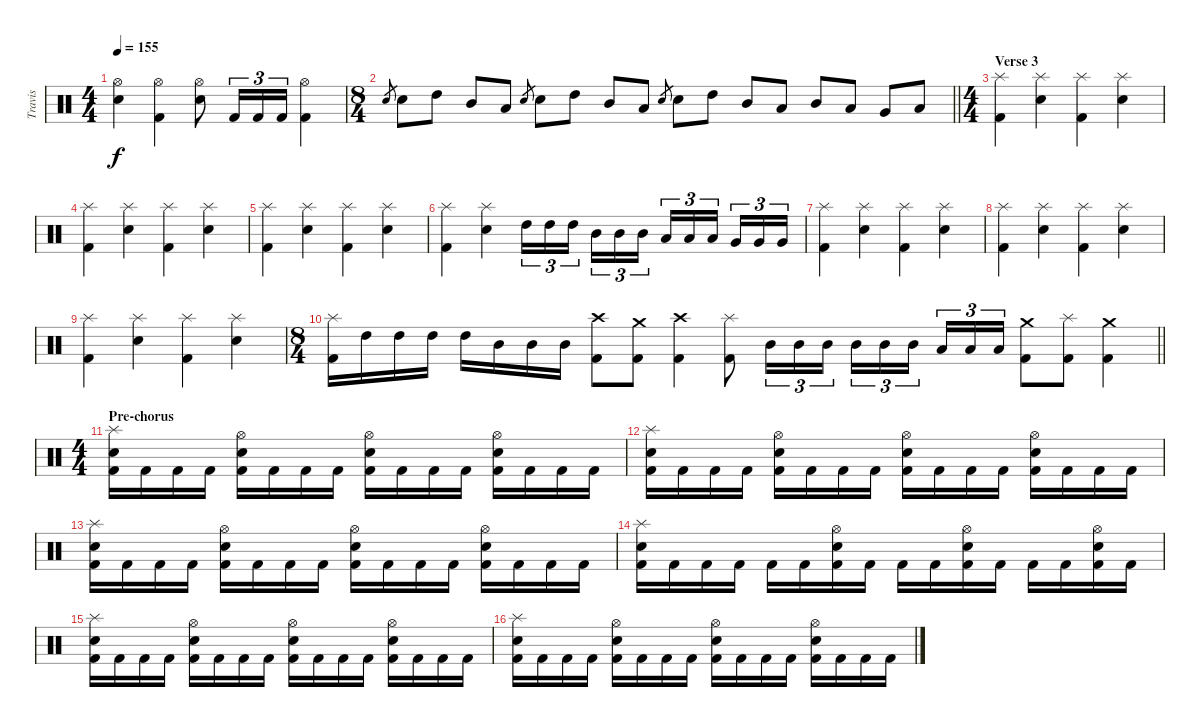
\track ("Travis" "Travis") {instrument percussion}
\staff {score}
\articulation defaults
\ts (4 4)
\tempo 155
\clef neutral
\ks c
("Hi-Hat (open)" "Snare (hit) 2").4{dy f} ("Hi-Hat (open)" "Kick (hit) 2").4 ("Hi-Hat (open)" "Snare (hit) 2").8 "Kick (hit) 2".16{tu (3 2)} "Kick (hit) 2".16{tu (3 2)} "Kick (hit) 2".16{tu (3 2)} ("Hi-Hat (open)" "Kick (hit) 2").4 |
\ts (8 4)
\barLineRight lightlight "Snare (hit) 2".8{gr} "Snare (hit) 2".8 "High Tom (hit)".8 "Mid Tom (hit)".8 "Low Tom (hit)".8 "Snare (hit) 2".8{gr} "Snare (hit) 2".8 "High Tom (hit)".8 "Mid Tom (hit)".8 "Low Tom (hit)".8 "Snare (hit) 2".8{gr} "Snare (hit) 2".8 "High Tom (hit)".8 "Mid Tom (hit)".8 "Low Tom (hit)".8 "Mid Tom (hit)".8 "Low Tom (hit)".8 "Very Low Tom (hit)".8 "Low Floor Tom (hit)".8
|
\ts (4 4)
\section ("" "Verse 3")
("Splash (hit)" "Kick (hit) 2").4 ("Splash (hit)" "Snare (hit) 2").4 ("Splash (hit)" "Kick (hit) 2").4 ("Splash (hit)" "Snare (hit) 2").4 |
("Splash (hit)" "Kick (hit) 2").4 ("Splash (hit)" "Snare (hit) 2").4 ("Splash (hit)" "Kick (hit) 2").4 ("Splash (hit)" "Snare (hit) 2").4 |
("Splash (hit)" "Kick (hit) 2").4 ("Splash (hit)" "Snare (hit) 2").4 ("Splash (hit)" "Kick (hit) 2").4 ("Splash (hit)" "Snare (hit) 2").4 |
("Splash (hit)" "Kick (hit) 2").4 ("Splash (hit)" "Snare (hit) 2").4 "High Tom (hit)".16{tu (3 2)} "High Tom (hit)".16{tu (3 2)} "High Tom (hit)".16{tu (3 2)} "Mid Tom (hit)".16{tu (3 2)} "Mid Tom (hit)".16{tu (3 2)} "Mid Tom (hit)".16{tu (3 2)} "Low Tom (hit)".16{tu (3 2)} "Low Tom (hit)".16{tu (3 2)} "Low Tom (hit)".16{tu (3 2)} "Very Low Tom (hit)".16{tu (3 2)} "Very Low Tom (hit)".16{tu (3 2)} "Very Low Tom (hit)".16{tu (3 2)} |
("Splash (hit)" "Kick (hit) 2").4 ("Splash (hit)" "Snare (hit) 2").4 ("Splash (hit)" "Kick (hit) 2").4 ("Splash (hit)" "Snare (hit) 2").4 |
("Splash (hit)" "Kick (hit) 2").4 ("Splash (hit)" "Snare (hit) 2").4 ("Splash (hit)" "Kick (hit) 2").4 ("Splash (hit)" "Snare (hit) 2").4 |
("Splash (hit)" "Kick (hit) 2").4 ("Splash (hit)" "Snare (hit) 2").4 ("Splash (hit)" "Kick (hit) 2").4 ("Splash (hit)" "Snare (hit) 2").4 |
\ts (8 4)
\barLineRight lightlight
("Splash (hit)" "Kick (hit) 2").16 "High Tom (hit)".16 "High Tom (hit)".16 "High Tom (hit)".16 "High Tom (hit)".16 "Mid Tom (hit)".16 "Mid Tom (hit)".16 "Mid Tom (hit)".16 ("Crash high (hit)" "Kick (hit) 2").8 ("Crash medium (hit)" "Kick (hit) 2").8 ("Crash high (hit)" "Kick (hit) 2").4 ("Splash (hit)" "Kick (hit) 2").8 "Mid Tom (hit)".16{tu (3 2)} "Mid Tom (hit)".16{tu (3 2)} "Mid Tom (hit)".16{tu (3 2)} "Mid Tom (hit)".16{tu (3 2)} "Mid Tom (hit)".16{tu (3 2)} "Mid Tom (hit)".16{tu (3 2)} "Low Tom (hit)".16{tu (3 2)} "Low Tom (hit)".16{tu (3 2)} "Low Tom (hit)".16{tu (3 2)} ("Crash medium (hit)" "Kick (hit) 2").8 ("Splash (hit)" "Kick (hit) 2").8 ("Crash medium (hit)" "Kick (hit) 2").4 |
\ts (4 4)
\section ("" "Pre-chorus")
("Splash (hit)" "Snare (hit) 2" "Kick (hit) 2").16 "Kick (hit) 2".16 "Kick (hit) 2".16 "Kick (hit) 2".16 ("Hi-Hat (open)" "Snare (hit) 2" "Kick (hit) 2").16 "Kick (hit) 2".16 "Kick (hit) 2".16 "Kick (hit) 2".16 ("Hi-Hat (open)" "Snare (hit) 2" "Kick (hit) 2").16 "Kick (hit) 2".16 "Kick (hit) 2".16 "Kick (hit) 2".16 ("Hi-Hat (open)" "Snare (hit) 2" "Kick (hit) 2").16 "Kick (hit) 2".16 "Kick (hit) 2".16 "Kick (hit) 2".16 |
("Splash (hit)" "Snare (hit) 2" "Kick (hit) 2").16 "Kick (hit) 2".16 "Kick (hit) 2".16 "Kick (hit) 2".16 ("Hi-Hat (open)" "Snare (hit) 2" "Kick (hit) 2").16 "Kick (hit) 2".16 "Kick (hit) 2".16 "Kick (hit) 2".16 ("Hi-Hat (open)" "Snare (hit) 2" "Kick (hit) 2").16 "Kick (hit) 2".16 "Kick (hit) 2".16 "Kick (hit) 2".16 ("Hi-Hat (open)" "Snare (hit) 2" "Kick (hit) 2").16 "Kick (hit) 2".16 "Kick (hit) 2".16 "Kick (hit) 2".16 |
("Splash (hit)" "Snare (hit) 2" "Kick (hit) 2").16 "Kick (hit) 2".16 "Kick (hit) 2".16 "Kick (hit) 2".16 ("Hi-Hat (open)" "Snare (hit) 2" "Kick (hit) 2").16 "Kick (hit) 2".16 "Kick (hit) 2".16 "Kick (hit) 2".16 ("Hi-Hat (open)" "Snare (hit) 2" "Kick (hit) 2").16 "Kick (hit) 2".16 "Kick (hit) 2".16 "Kick (hit) 2".16 ("Hi-Hat (open)" "Snare (hit) 2" "Kick (hit) 2").16 "Kick (hit) 2".16 "Kick (hit) 2".16 "Kick (hit) 2".16 |
("Splash (hit)" "Snare (hit) 2" "Kick (hit) 2").16 "Kick (hit) 2".16 "Kick (hit) 2".16 "Kick (hit) 2".16 "Kick (hit) 2".16 "Kick (hit) 2".16 ("Hi-Hat (open)" "Snare (hit) 2" "Kick (hit) 2").16 "Kick (hit) 2".16 "Kick (hit) 2".16 "Kick (hit) 2".16 ("Hi-Hat (open)" "Snare (hit) 2" "Kick (hit) 2").16 "Kick (hit) 2".16 "Kick (hit) 2".16 "Kick (hit) 2".16 ("Hi-Hat (open)" "Snare (hit) 2" "Kick (hit) 2").16 "Kick (hit) 2".16 |
("Splash (hit)" "Snare (hit) 2" "Kick (hit) 2").16 "Kick (hit) 2".16 "Kick (hit) 2".16 "Kick (hit) 2".16 ("Hi-Hat (open)" "Snare (hit) 2" "Kick (hit) 2").16 "Kick (hit) 2".16 "Kick (hit) 2".16 "Kick (hit) 2".16 ("Hi-Hat (open)" "Snare (hit) 2" "Kick (hit) 2").16 "Kick (hit) 2".16 "Kick (hit) 2".16 "Kick (hit) 2".16 ("Hi-Hat (open)" "Snare (hit) 2" "Kick (hit) 2").16 "Kick (hit) 2".16 "Kick (hit) 2".16 "Kick (hit) 2".16 |
("Splash (hit)" "Snare (hit) 2" "Kick (hit) 2").16 "Kick (hit) 2".16 "Kick (hit) 2".16 "Kick (hit) 2".16 ("Hi-Hat (open)" "Snare (hit) 2" "Kick (hit) 2").16 "Kick (hit) 2".16 "Kick (hit) 2".16 "Kick (hit) 2".16 ("Hi-Hat (open)" "Snare (hit) 2" "Kick (hit) 2").16 "Kick (hit) 2".16 "Kick (hit) 2".16 "Kick (hit) 2".16 ("Hi-Hat (open)" "Snare (hit) 2" "Kick (hit) 2").16 "Kick (hit) 2".16 "Kick (hit) 2".16 "Kick (hit) 2".16
